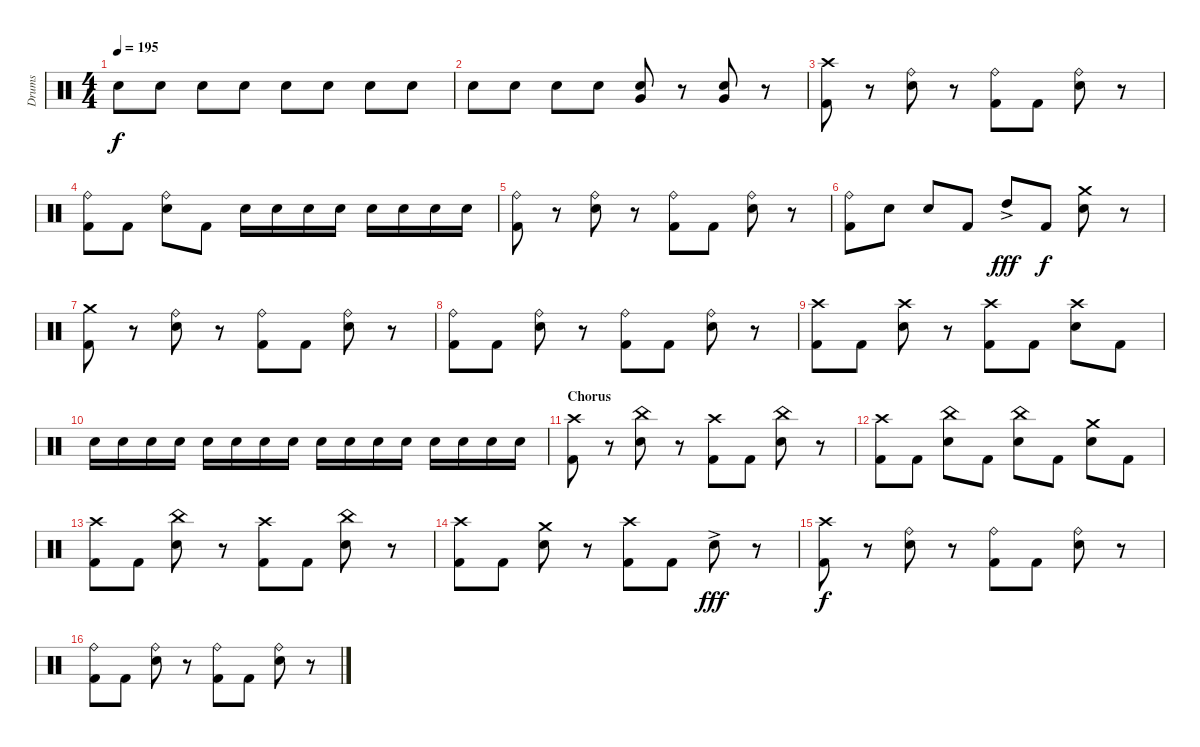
\track ("Drums" "Drums") {instrument percussion}
\staff {score}
\articulation defaults
\ts (4 4)
\tempo 195
\clef neutral
\ks c "Electric Snare (hit)".8{dy f} "Electric Snare (hit)".8 "Electric Snare (hit)".8 "Electric Snare (hit)".8 "Electric Snare (hit)".8 "Electric Snare (hit)".8 "Electric Snare (hit)".8 "Electric Snare (hit)".8
|
"Electric Snare (hit)".8 "Electric Snare (hit)".8 "Electric Snare (hit)".8 "Electric Snare (hit)".8 ("Electric Snare (hit)" "Very Low Tom (hit)").8 r.8 ("Electric Snare (hit)" "Very Low Tom (hit)").8 r.8 |
("Crash high (hit)" "Kick (hit) 2").8 r.8 ("Ride (bell)" "Electric Snare (hit)").8 r.8 ("Ride (bell)" "Kick (hit) 2").8 "Kick (hit) 2".8 ("Ride (bell)" "Electric Snare (hit)").8 r.8 |
("Ride (bell)" "Kick (hit) 2").8 "Kick (hit) 2".8 ("Ride (bell)" "Electric Snare (hit)").8 "Kick (hit) 2".8 "Electric Snare (hit)".16 "Electric Snare (hit)".16 "Electric Snare (hit)".16 "Electric Snare (hit)".16 "Electric Snare (hit)".16 "Electric Snare (hit)".16 "Electric Snare (hit)".16 "Electric Snare (hit)".16 |
("Ride (bell)" "Kick (hit) 2").8 r.8 ("Ride (bell)" "Electric Snare (hit)").8 r.8 ("Ride (bell)" "Kick (hit) 2").8 "Kick (hit) 2".8 ("Ride (bell)" "Electric Snare (hit)").8 r.8 |
("Ride (bell)" "Kick (hit) 2").8 "Electric Snare (hit)".8 "Electric Snare (hit)".8 "Kick (hit) 2".8 "High Tom (hit)"{ac}.8{dy fff} "Kick (hit) 2".8{dy f} ("Crash medium (hit)" "Electric Snare (hit)").8 r.8 |
("Crash medium (hit)" "Kick (hit) 2").8 r.8 ("Ride (bell)" "Electric Snare (hit)").8 r.8 ("Ride (bell)" "Kick (hit) 2").8 "Kick (hit) 2".8 ("Ride (bell)" "Electric Snare (hit)").8 r.8 |
("Ride (bell)" "Kick (hit) 2").8 "Kick (hit) 2".8 ("Ride (bell)" "Electric Snare (hit)").8 r.8 ("Ride (bell)" "Kick (hit) 2").8 "Kick (hit) 2".8 ("Ride (bell)" "Electric Snare (hit)").8 r.8 |
("Crash high (hit)" "Kick (hit) 2").8 "Kick (hit) 2".8 ("Crash high (hit)" "Electric Snare (hit)").8 r.8 ("Crash high (hit)" "Kick (hit) 2").8 "Kick (hit) 2".8 ("Crash high (hit)" "Electric Snare (hit)").8 "Kick (hit) 2".8 |
"Electric Snare (hit)".16 "Electric Snare (hit)".16 "Electric Snare (hit)".16 "Electric Snare (hit)".16 "Electric Snare (hit)".16 "Electric Snare (hit)".16 "Electric Snare (hit)".16 "Electric Snare (hit)".16 "Electric Snare (hit)".16 "Electric Snare (hit)".16 "Electric Snare (hit)".16 "Electric Snare (hit)".16 "Electric Snare (hit)".16 "Electric Snare (hit)".16 "Electric Snare (hit)".16 "Electric Snare (hit)".16 |
\section ("" "Chorus")
("Crash high (hit)" "Kick (hit) 2").8 r.8 ("China (hit)" "Electric Snare (hit)").8 r.8 ("Crash high (hit)" "Kick (hit) 2").8 "Kick (hit) 2".8 ("China (hit)" "Electric Snare (hit)").8 r.8 |
("Crash high (hit)" "Kick (hit) 2").8 "Kick (hit) 2".8 ("China (hit)" "Electric Snare (hit)").8 "Kick (hit) 2".8 ("China (hit)" "Electric Snare (hit)").8 "Kick (hit) 2".8 ("Crash medium (hit)" "Electric Snare (hit)").8 "Kick (hit) 2".8 |
("Crash high (hit)" "Kick (hit) 2").8 "Kick (hit) 2".8 ("China (hit)" "Electric Snare (hit)").8 r.8 ("Crash high (hit)" "Kick (hit) 2").8 "Kick (hit) 2".8 ("China (hit)" "Electric Snare (hit)").8 r.8 |
("Crash high (hit)" "Kick (hit) 2").8 "Kick (hit) 2".8 ("Crash medium (hit)" "Electric Snare (hit)").8 r.8 ("Crash high (hit)" "Kick (hit) 2").8 "Kick (hit) 2".8 "Electric Snare (hit)"{ac}.8{dy fff} r.8 |
("Crash high (hit)" "Kick (hit) 2").8{dy f} r.8 ("Ride (bell)" "Electric Snare (hit)").8 r.8 ("Ride (bell)" "Kick (hit) 2").8 "Kick (hit) 2".8 ("Ride (bell)" "Electric Snare (hit)").8 r.8 |
("Ride (bell)" "Kick (hit) 2").8 "Kick (hit) 2".8 ("Ride (bell)" "Electric Snare (hit)").8 r.8 ("Ride (bell)" "Kick (hit) 2").8 "Kick (hit) 2".8 ("Ride (bell)" "Electric Snare (hit)").8 r.8
